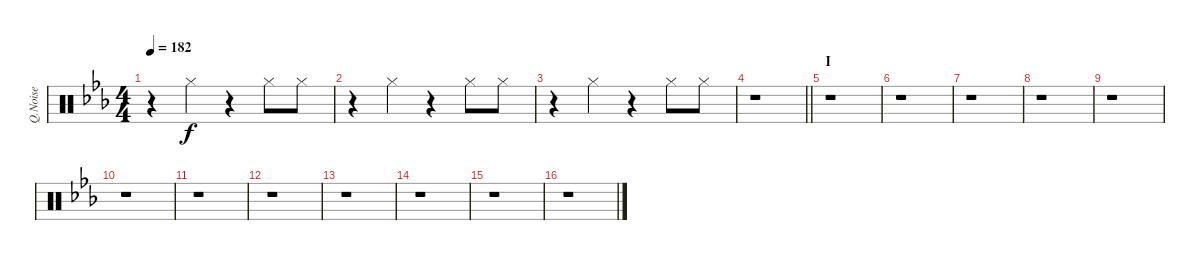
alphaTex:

\track ("Q.Noise" "Q.Noise") {instrument percussion}
\staff {score}
\articulation defaults
\ts (4 4)
\tempo 182
\clef neutral
\ks eb
r.4{dy f} "Hi-Hat (closed)".4 r.4 "Hi-Hat (closed)".8 "Hi-Hat (closed)".8 |
r.4 "Hi-Hat (closed)".4 r.4 "Hi-Hat (closed)".8 "Hi-Hat (closed)".8 |
r.4 "Hi-Hat (closed)".4 r.4 "Hi-Hat (closed)".8 "Hi-Hat (closed)".8 |
\barLineRight lightlight
r.1 |
\section ("" "I")
r.1 |
r.1 |
r.1 |
r.1 |
r.1 |
r.1 |
r.1 |
r.1 |
r.1 |
r.1 |
r.1 |
r.1
